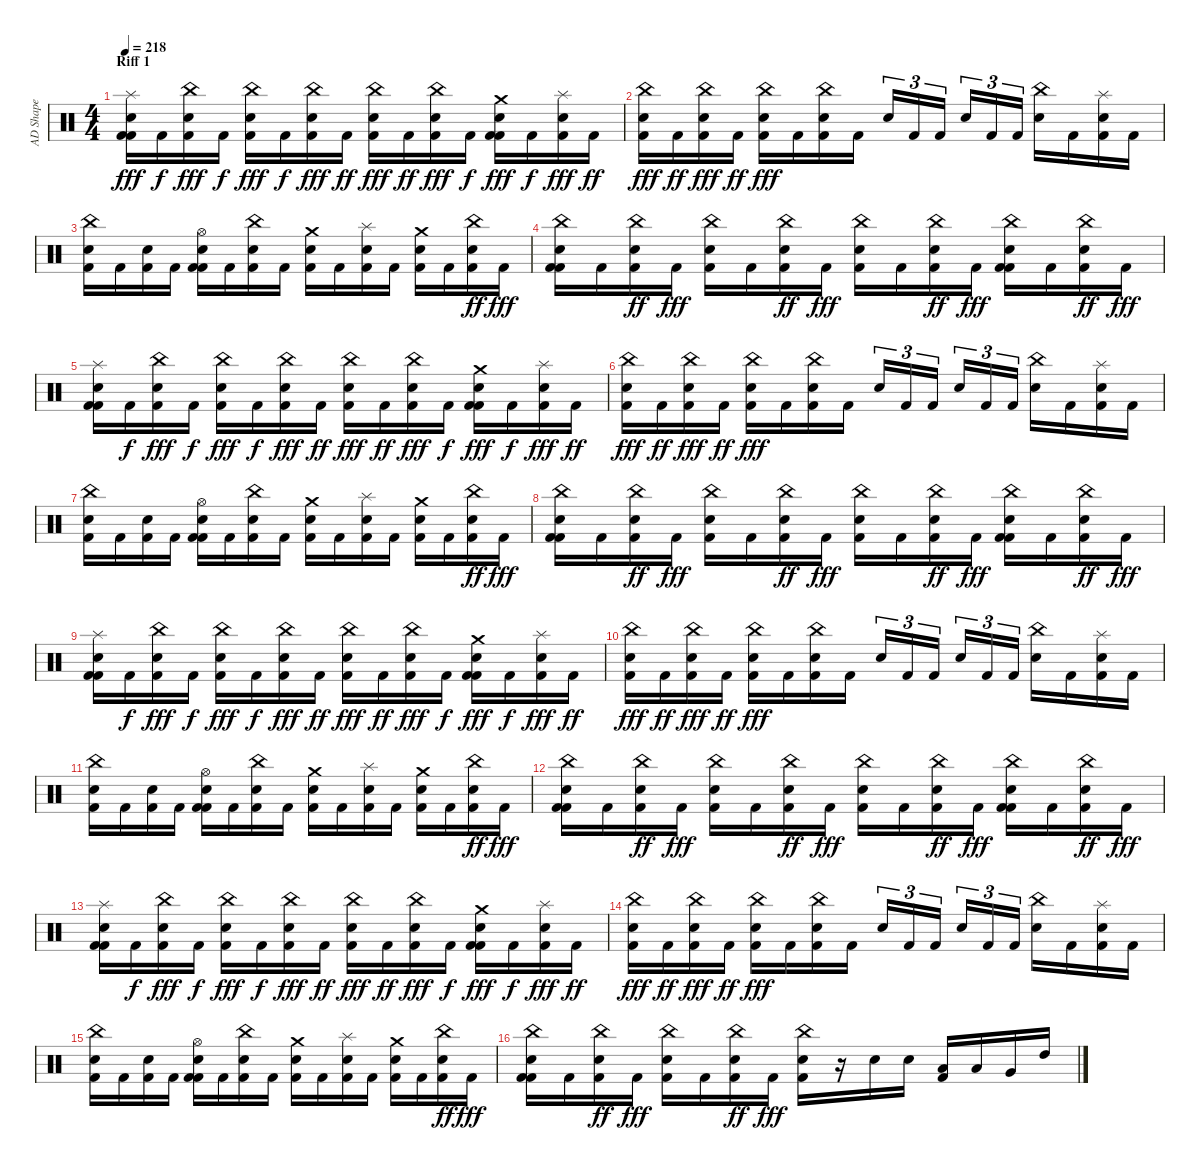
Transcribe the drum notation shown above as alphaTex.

\track ("AD Shape" "AD Shape") {instrument percussion}
\staff {score}
\articulation defaults
\ts (4 4)
\section ("" "Riff 1")
\tempo 218
\clef neutral
\ks c
("Kick (hit) 2" "Kick (hit) 2" "Snare (hit) 2" "Splash (hit)").16{dy fff} "Kick (hit) 2".16{dy f} ("Kick (hit) 2" "Snare (hit) 2" "China (hit)").16{dy fff} "Kick (hit) 2".16{dy f} ("Kick (hit) 2" "Snare (hit) 2" "China (hit)").16{dy fff} "Kick (hit) 2".16{dy f} ("Kick (hit) 2" "Snare (hit) 2" "China (hit)").16{dy fff} "Kick (hit) 2".16{dy ff} ("Kick (hit) 2" "Snare (hit) 2" "China (hit)").16{dy fff} "Kick (hit) 2".16{dy ff} ("Kick (hit) 2" "Snare (hit) 2" "China (hit)").16{dy fff} "Kick (hit) 2".16{dy f} ("Kick (hit) 2" "Kick (hit) 2" "Snare (hit) 2" "Crash medium (hit)").16{dy fff} "Kick (hit) 2".16{dy f} ("Kick (hit) 2" "Snare (hit) 2" "Splash (hit)").16{dy fff} "Kick (hit) 2".16{dy ff} |
("Kick (hit) 2" "Snare (hit) 2" "China (hit)").16{dy fff} "Kick (hit) 2".16{dy ff} ("Kick (hit) 2" "Snare (hit) 2" "China (hit)").16{dy fff} "Kick (hit) 2".16{dy ff} ("Kick (hit) 2" "Snare (hit) 2" "China (hit)").16{dy fff} "Kick (hit) 2".16 ("Kick (hit) 2" "Snare (hit) 2" "China (hit)").16 "Kick (hit) 2".16 "Snare (hit) 2".16{tu (3 2)} "Kick (hit) 2".16{tu (3 2)} "Kick (hit) 2".16{tu (3 2)} "Snare (hit) 2".16{tu (3 2)} "Kick (hit) 2".16{tu (3 2)} "Kick (hit) 2".16{tu (3 2)} ("Snare (hit) 2" "China (hit)").16 "Kick (hit) 2".16 ("Kick (hit) 2" "Snare (hit) 2" "Splash (hit)").16 "Kick (hit) 2".16 |
("Kick (hit) 2" "Snare (hit) 2" "China (hit)").16 "Kick (hit) 2".16 ("Kick (hit) 2" "Snare (hit) 2").16 "Kick (hit) 2".16 ("Kick (hit) 2" "Kick (hit) 2" "Snare (hit) 2" "Hi-Hat (open)").16 "Kick (hit) 2".16 ("Kick (hit) 2" "Snare (hit) 2" "China (hit)").16 "Kick (hit) 2".16 ("Kick (hit) 2" "Snare (hit) 2" "Crash medium (hit)").16 "Kick (hit) 2".16 ("Kick (hit) 2" "Snare (hit) 2" "Splash (hit)").16 "Kick (hit) 2".16 ("Kick (hit) 2" "Snare (hit) 2" "Crash medium (hit)").16 "Kick (hit) 2".16 ("Kick (hit) 2" "Snare (hit) 2" "China (hit)").16{dy ff} "Kick (hit) 2".16{dy fff} |
("Kick (hit) 2" "Kick (hit) 2" "Snare (hit) 2" "China (hit)").16 "Kick (hit) 2".16 ("Kick (hit) 2" "Snare (hit) 2" "China (hit)").16{dy ff} "Kick (hit) 2".16{dy fff} ("Kick (hit) 2" "Snare (hit) 2" "China (hit)").16 "Kick (hit) 2".16 ("Kick (hit) 2" "Snare (hit) 2" "China (hit)").16{dy ff} "Kick (hit) 2".16{dy fff} ("Kick (hit) 2" "Snare (hit) 2" "China (hit)").16 "Kick (hit) 2".16 ("Kick (hit) 2" "Snare (hit) 2" "China (hit)").16{dy ff} "Kick (hit) 2".16{dy fff} ("Kick (hit) 2" "Kick (hit) 2" "Snare (hit) 2" "China (hit)").16 "Kick (hit) 2".16 ("Kick (hit) 2" "Snare (hit) 2" "China (hit)").16{dy ff} "Kick (hit) 2".16{dy fff} |
("Kick (hit) 2" "Kick (hit) 2" "Snare (hit) 2" "Splash (hit)").16 "Kick (hit) 2".16{dy f} ("Kick (hit) 2" "Snare (hit) 2" "China (hit)").16{dy fff} "Kick (hit) 2".16{dy f} ("Kick (hit) 2" "Snare (hit) 2" "China (hit)").16{dy fff} "Kick (hit) 2".16{dy f} ("Kick (hit) 2" "Snare (hit) 2" "China (hit)").16{dy fff} "Kick (hit) 2".16{dy ff} ("Kick (hit) 2" "Snare (hit) 2" "China (hit)").16{dy fff} "Kick (hit) 2".16{dy ff} ("Kick (hit) 2" "Snare (hit) 2" "China (hit)").16{dy fff} "Kick (hit) 2".16{dy f} ("Kick (hit) 2" "Kick (hit) 2" "Snare (hit) 2" "Crash medium (hit)").16{dy fff} "Kick (hit) 2".16{dy f} ("Kick (hit) 2" "Snare (hit) 2" "Splash (hit)").16{dy fff} "Kick (hit) 2".16{dy ff} |
("Kick (hit) 2" "Snare (hit) 2" "China (hit)").16{dy fff} "Kick (hit) 2".16{dy ff} ("Kick (hit) 2" "Snare (hit) 2" "China (hit)").16{dy fff} "Kick (hit) 2".16{dy ff} ("Kick (hit) 2" "Snare (hit) 2" "China (hit)").16{dy fff} "Kick (hit) 2".16 ("Kick (hit) 2" "Snare (hit) 2" "China (hit)").16 "Kick (hit) 2".16 "Snare (hit) 2".16{tu (3 2)} "Kick (hit) 2".16{tu (3 2)} "Kick (hit) 2".16{tu (3 2)} "Snare (hit) 2".16{tu (3 2)} "Kick (hit) 2".16{tu (3 2)} "Kick (hit) 2".16{tu (3 2)} ("Snare (hit) 2" "China (hit)").16 "Kick (hit) 2".16 ("Kick (hit) 2" "Snare (hit) 2" "Splash (hit)").16 "Kick (hit) 2".16 |
("Kick (hit) 2" "Snare (hit) 2" "China (hit)").16 "Kick (hit) 2".16 ("Kick (hit) 2" "Snare (hit) 2").16 "Kick (hit) 2".16 ("Kick (hit) 2" "Kick (hit) 2" "Snare (hit) 2" "Hi-Hat (open)").16 "Kick (hit) 2".16 ("Kick (hit) 2" "Snare (hit) 2" "China (hit)").16 "Kick (hit) 2".16 ("Kick (hit) 2" "Snare (hit) 2" "Crash medium (hit)").16 "Kick (hit) 2".16 ("Kick (hit) 2" "Snare (hit) 2" "Splash (hit)").16 "Kick (hit) 2".16 ("Kick (hit) 2" "Snare (hit) 2" "Crash medium (hit)").16 "Kick (hit) 2".16 ("Kick (hit) 2" "Snare (hit) 2" "China (hit)").16{dy ff} "Kick (hit) 2".16{dy fff} |
("Kick (hit) 2" "Kick (hit) 2" "Snare (hit) 2" "China (hit)").16 "Kick (hit) 2".16 ("Kick (hit) 2" "Snare (hit) 2" "China (hit)").16{dy ff} "Kick (hit) 2".16{dy fff} ("Kick (hit) 2" "Snare (hit) 2" "China (hit)").16 "Kick (hit) 2".16 ("Kick (hit) 2" "Snare (hit) 2" "China (hit)").16{dy ff} "Kick (hit) 2".16{dy fff} ("Kick (hit) 2" "Snare (hit) 2" "China (hit)").16 "Kick (hit) 2".16 ("Kick (hit) 2" "Snare (hit) 2" "China (hit)").16{dy ff} "Kick (hit) 2".16{dy fff} ("Kick (hit) 2" "Kick (hit) 2" "Snare (hit) 2" "China (hit)").16 "Kick (hit) 2".16 ("Kick (hit) 2" "Snare (hit) 2" "China (hit)").16{dy ff} "Kick (hit) 2".16{dy fff} |
("Kick (hit) 2" "Kick (hit) 2" "Snare (hit) 2" "Splash (hit)").16 "Kick (hit) 2".16{dy f} ("Kick (hit) 2" "Snare (hit) 2" "China (hit)").16{dy fff} "Kick (hit) 2".16{dy f} ("Kick (hit) 2" "Snare (hit) 2" "China (hit)").16{dy fff} "Kick (hit) 2".16{dy f} ("Kick (hit) 2" "Snare (hit) 2" "China (hit)").16{dy fff} "Kick (hit) 2".16{dy ff} ("Kick (hit) 2" "Snare (hit) 2" "China (hit)").16{dy fff} "Kick (hit) 2".16{dy ff} ("Kick (hit) 2" "Snare (hit) 2" "China (hit)").16{dy fff} "Kick (hit) 2".16{dy f} ("Kick (hit) 2" "Kick (hit) 2" "Snare (hit) 2" "Crash medium (hit)").16{dy fff} "Kick (hit) 2".16{dy f} ("Kick (hit) 2" "Snare (hit) 2" "Splash (hit)").16{dy fff} "Kick (hit) 2".16{dy ff} |
("Kick (hit) 2" "Snare (hit) 2" "China (hit)").16{dy fff} "Kick (hit) 2".16{dy ff} ("Kick (hit) 2" "Snare (hit) 2" "China (hit)").16{dy fff} "Kick (hit) 2".16{dy ff} ("Kick (hit) 2" "Snare (hit) 2" "China (hit)").16{dy fff} "Kick (hit) 2".16 ("Kick (hit) 2" "Snare (hit) 2" "China (hit)").16 "Kick (hit) 2".16 "Snare (hit) 2".16{tu (3 2)} "Kick (hit) 2".16{tu (3 2)} "Kick (hit) 2".16{tu (3 2)} "Snare (hit) 2".16{tu (3 2)} "Kick (hit) 2".16{tu (3 2)} "Kick (hit) 2".16{tu (3 2)} ("Snare (hit) 2" "China (hit)").16 "Kick (hit) 2".16 ("Kick (hit) 2" "Snare (hit) 2" "Splash (hit)").16 "Kick (hit) 2".16 |
("Kick (hit) 2" "Snare (hit) 2" "China (hit)").16 "Kick (hit) 2".16 ("Kick (hit) 2" "Snare (hit) 2").16 "Kick (hit) 2".16 ("Kick (hit) 2" "Kick (hit) 2" "Snare (hit) 2" "Hi-Hat (open)").16 "Kick (hit) 2".16 ("Kick (hit) 2" "Snare (hit) 2" "China (hit)").16 "Kick (hit) 2".16 ("Kick (hit) 2" "Snare (hit) 2" "Crash medium (hit)").16 "Kick (hit) 2".16 ("Kick (hit) 2" "Snare (hit) 2" "Splash (hit)").16 "Kick (hit) 2".16 ("Kick (hit) 2" "Snare (hit) 2" "Crash medium (hit)").16 "Kick (hit) 2".16 ("Kick (hit) 2" "Snare (hit) 2" "China (hit)").16{dy ff} "Kick (hit) 2".16{dy fff} |
("Kick (hit) 2" "Kick (hit) 2" "Snare (hit) 2" "China (hit)").16 "Kick (hit) 2".16 ("Kick (hit) 2" "Snare (hit) 2" "China (hit)").16{dy ff} "Kick (hit) 2".16{dy fff} ("Kick (hit) 2" "Snare (hit) 2" "China (hit)").16 "Kick (hit) 2".16 ("Kick (hit) 2" "Snare (hit) 2" "China (hit)").16{dy ff} "Kick (hit) 2".16{dy fff} ("Kick (hit) 2" "Snare (hit) 2" "China (hit)").16 "Kick (hit) 2".16 ("Kick (hit) 2" "Snare (hit) 2" "China (hit)").16{dy ff} "Kick (hit) 2".16{dy fff} ("Kick (hit) 2" "Kick (hit) 2" "Snare (hit) 2" "China (hit)").16 "Kick (hit) 2".16 ("Kick (hit) 2" "Snare (hit) 2" "China (hit)").16{dy ff} "Kick (hit) 2".16{dy fff} |
("Kick (hit) 2" "Kick (hit) 2" "Snare (hit) 2" "Splash (hit)").16 "Kick (hit) 2".16{dy f} ("Kick (hit) 2" "Snare (hit) 2" "China (hit)").16{dy fff} "Kick (hit) 2".16{dy f} ("Kick (hit) 2" "Snare (hit) 2" "China (hit)").16{dy fff} "Kick (hit) 2".16{dy f} ("Kick (hit) 2" "Snare (hit) 2" "China (hit)").16{dy fff} "Kick (hit) 2".16{dy ff} ("Kick (hit) 2" "Snare (hit) 2" "China (hit)").16{dy fff} "Kick (hit) 2".16{dy ff} ("Kick (hit) 2" "Snare (hit) 2" "China (hit)").16{dy fff} "Kick (hit) 2".16{dy f} ("Kick (hit) 2" "Kick (hit) 2" "Snare (hit) 2" "Crash medium (hit)").16{dy fff} "Kick (hit) 2".16{dy f} ("Kick (hit) 2" "Snare (hit) 2" "Splash (hit)").16{dy fff} "Kick (hit) 2".16{dy ff} |
("Kick (hit) 2" "Snare (hit) 2" "China (hit)").16{dy fff} "Kick (hit) 2".16{dy ff} ("Kick (hit) 2" "Snare (hit) 2" "China (hit)").16{dy fff} "Kick (hit) 2".16{dy ff} ("Kick (hit) 2" "Snare (hit) 2" "China (hit)").16{dy fff} "Kick (hit) 2".16 ("Kick (hit) 2" "Snare (hit) 2" "China (hit)").16 "Kick (hit) 2".16 "Snare (hit) 2".16{tu (3 2)} "Kick (hit) 2".16{tu (3 2)} "Kick (hit) 2".16{tu (3 2)} "Snare (hit) 2".16{tu (3 2)} "Kick (hit) 2".16{tu (3 2)} "Kick (hit) 2".16{tu (3 2)} ("Snare (hit) 2" "China (hit)").16 "Kick (hit) 2".16 ("Kick (hit) 2" "Snare (hit) 2" "Splash (hit)").16 "Kick (hit) 2".16 |
("Kick (hit) 2" "Snare (hit) 2" "China (hit)").16 "Kick (hit) 2".16 ("Kick (hit) 2" "Snare (hit) 2").16 "Kick (hit) 2".16 ("Kick (hit) 2" "Kick (hit) 2" "Snare (hit) 2" "Hi-Hat (open)").16 "Kick (hit) 2".16 ("Kick (hit) 2" "Snare (hit) 2" "China (hit)").16 "Kick (hit) 2".16 ("Kick (hit) 2" "Snare (hit) 2" "Crash medium (hit)").16 "Kick (hit) 2".16 ("Kick (hit) 2" "Snare (hit) 2" "Splash (hit)").16 "Kick (hit) 2".16 ("Kick (hit) 2" "Snare (hit) 2" "Crash medium (hit)").16 "Kick (hit) 2".16 ("Kick (hit) 2" "Snare (hit) 2" "China (hit)").16{dy ff} "Kick (hit) 2".16{dy fff} |
("Kick (hit) 2" "Kick (hit) 2" "Snare (hit) 2" "China (hit)").16 "Kick (hit) 2".16 ("Kick (hit) 2" "Snare (hit) 2" "China (hit)").16{dy ff} "Kick (hit) 2".16{dy fff} ("Kick (hit) 2" "Snare (hit) 2" "China (hit)").16 "Kick (hit) 2".16 ("Kick (hit) 2" "Snare (hit) 2" "China (hit)").16{dy ff} "Kick (hit) 2".16{dy fff} ("Kick (hit) 2" "Snare (hit) 2" "China (hit)").16 r.16 "Snare (hit) 2".16 "Snare (hit) 2".16 ("Kick (hit) 2" "Low Tom (hit)").16 "Low Tom (hit)".16 "Very Low Tom (hit)".16 "High Tom (hit)".16
